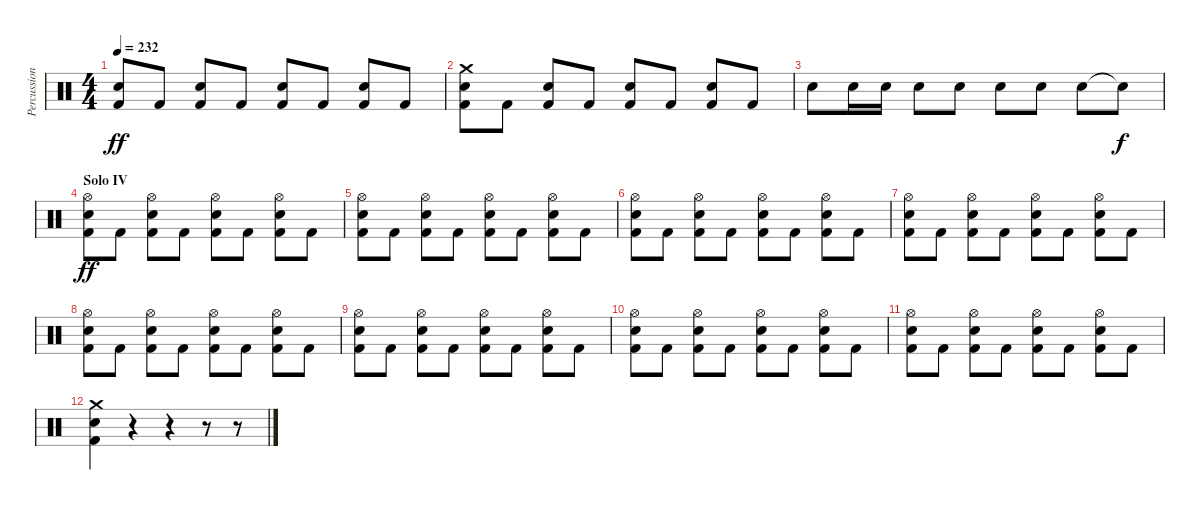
\track ("Percussion" "Percussion") {instrument percussion}
\staff {score}
\articulation defaults
\ts (4 4)
\tempo 232
\clef neutral
\ks c
("Snare (hit) 2" "Kick (hit) 2").8{dy ff} "Kick (hit) 2".8 ("Snare (hit) 2" "Kick (hit) 2").8 "Kick (hit) 2".8 ("Snare (hit) 2" "Kick (hit) 2").8 "Kick (hit) 2".8 ("Snare (hit) 2" "Kick (hit) 2").8 "Kick (hit) 2".8 |
("Crash medium (hit)" "Snare (hit) 2" "Kick (hit) 2").8 "Kick (hit) 2".8 ("Snare (hit) 2" "Kick (hit) 2").8 "Kick (hit) 2".8 ("Snare (hit) 2" "Kick (hit) 2").8 "Kick (hit) 2".8 ("Snare (hit) 2" "Kick (hit) 2").8 "Kick (hit) 2".8 |
"Snare (hit) 2".8 "Snare (hit) 2".16 "Snare (hit) 2".16 "Snare (hit) 2".8 "Snare (hit) 2".8 "Snare (hit) 2".8 "Snare (hit) 2".8 "Snare (hit) 2".8 "Snare (hit) 2"{t}.8{dy f} |
\section ("" "Solo IV")
("Hi-Hat (open)" "Snare (hit) 2" "Kick (hit) 2").8{dy ff} "Kick (hit) 2".8 ("Hi-Hat (open)" "Snare (hit) 2" "Kick (hit) 2").8 "Kick (hit) 2".8 ("Hi-Hat (open)" "Snare (hit) 2" "Kick (hit) 2").8 "Kick (hit) 2".8 ("Hi-Hat (open)" "Snare (hit) 2" "Kick (hit) 2").8 "Kick (hit) 2".8 |
("Hi-Hat (open)" "Snare (hit) 2" "Kick (hit) 2").8 "Kick (hit) 2".8 ("Hi-Hat (open)" "Snare (hit) 2" "Kick (hit) 2").8 "Kick (hit) 2".8 ("Hi-Hat (open)" "Snare (hit) 2" "Kick (hit) 2").8 "Kick (hit) 2".8 ("Hi-Hat (open)" "Snare (hit) 2" "Kick (hit) 2").8 "Kick (hit) 2".8 |
("Hi-Hat (open)" "Snare (hit) 2" "Kick (hit) 2").8 "Kick (hit) 2".8 ("Hi-Hat (open)" "Snare (hit) 2" "Kick (hit) 2").8 "Kick (hit) 2".8 ("Hi-Hat (open)" "Snare (hit) 2" "Kick (hit) 2").8 "Kick (hit) 2".8 ("Hi-Hat (open)" "Snare (hit) 2" "Kick (hit) 2").8 "Kick (hit) 2".8 |
("Hi-Hat (open)" "Snare (hit) 2" "Kick (hit) 2").8 "Kick (hit) 2".8 ("Hi-Hat (open)" "Snare (hit) 2" "Kick (hit) 2").8 "Kick (hit) 2".8 ("Hi-Hat (open)" "Snare (hit) 2" "Kick (hit) 2").8 "Kick (hit) 2".8 ("Hi-Hat (open)" "Snare (hit) 2" "Kick (hit) 2").8 "Kick (hit) 2".8 |
("Hi-Hat (open)" "Snare (hit) 2" "Kick (hit) 2").8 "Kick (hit) 2".8 ("Hi-Hat (open)" "Snare (hit) 2" "Kick (hit) 2").8 "Kick (hit) 2".8 ("Hi-Hat (open)" "Snare (hit) 2" "Kick (hit) 2").8 "Kick (hit) 2".8 ("Hi-Hat (open)" "Snare (hit) 2" "Kick (hit) 2").8 "Kick (hit) 2".8 |
("Hi-Hat (open)" "Snare (hit) 2" "Kick (hit) 2").8 "Kick (hit) 2".8 ("Hi-Hat (open)" "Snare (hit) 2" "Kick (hit) 2").8 "Kick (hit) 2".8 ("Hi-Hat (open)" "Snare (hit) 2" "Kick (hit) 2").8 "Kick (hit) 2".8 ("Hi-Hat (open)" "Snare (hit) 2" "Kick (hit) 2").8 "Kick (hit) 2".8 |
("Hi-Hat (open)" "Snare (hit) 2" "Kick (hit) 2").8 "Kick (hit) 2".8 ("Hi-Hat (open)" "Snare (hit) 2" "Kick (hit) 2").8 "Kick (hit) 2".8 ("Hi-Hat (open)" "Snare (hit) 2" "Kick (hit) 2").8 "Kick (hit) 2".8 ("Hi-Hat (open)" "Snare (hit) 2" "Kick (hit) 2").8 "Kick (hit) 2".8 |
("Hi-Hat (open)" "Snare (hit) 2" "Kick (hit) 2").8 "Kick (hit) 2".8 ("Hi-Hat (open)" "Snare (hit) 2" "Kick (hit) 2").8 "Kick (hit) 2".8 ("Hi-Hat (open)" "Snare (hit) 2" "Kick (hit) 2").8 "Kick (hit) 2".8 ("Hi-Hat (open)" "Snare (hit) 2" "Kick (hit) 2").8 "Kick (hit) 2".8 |
("Crash medium (hit)" "Snare (hit) 2" "Kick (hit) 2").4 r.4 r.4 r.8 r.8
